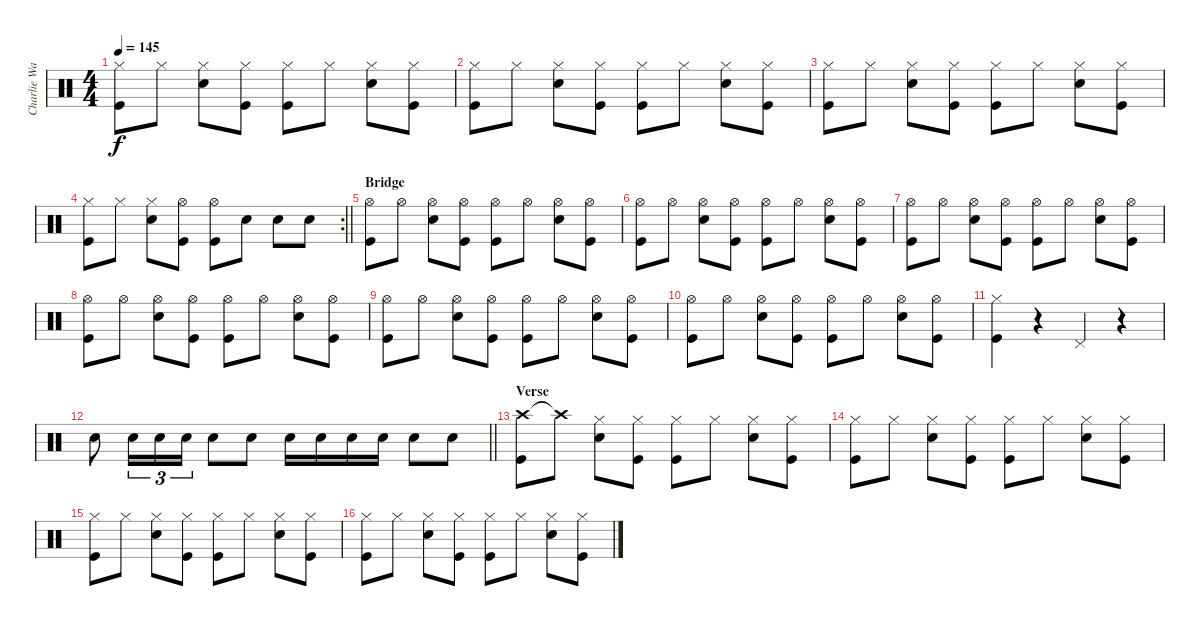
\track ("Charlie Watts" "Charlie Wa") {instrument percussion}
\staff {score}
\articulation defaults
\ts (4 4)
\tempo 145
\clef neutral
\ks c
("Hi-Hat (closed)" "Kick (hit)").8{dy f} "Hi-Hat (closed)".8 ("Hi-Hat (closed)" "Snare (hit) 2").8 ("Hi-Hat (closed)" "Kick (hit)").8 ("Hi-Hat (closed)" "Kick (hit)").8 "Hi-Hat (closed)".8 ("Hi-Hat (closed)" "Snare (hit) 2").8 ("Hi-Hat (closed)" "Kick (hit)").8 |
("Hi-Hat (closed)" "Kick (hit)").8 "Hi-Hat (closed)".8 ("Hi-Hat (closed)" "Snare (hit) 2").8 ("Hi-Hat (closed)" "Kick (hit)").8 ("Hi-Hat (closed)" "Kick (hit)").8 "Hi-Hat (closed)".8 ("Hi-Hat (closed)" "Snare (hit) 2").8 ("Hi-Hat (closed)" "Kick (hit)").8 |
("Hi-Hat (closed)" "Kick (hit)").8 "Hi-Hat (closed)".8 ("Hi-Hat (closed)" "Snare (hit) 2").8 ("Hi-Hat (closed)" "Kick (hit)").8 ("Hi-Hat (closed)" "Kick (hit)").8 "Hi-Hat (closed)".8 ("Hi-Hat (closed)" "Snare (hit) 2").8 ("Hi-Hat (closed)" "Kick (hit)").8 |
\rc 2
\barLineRight lightlight
("Hi-Hat (closed)" "Kick (hit)").8 "Hi-Hat (closed)".8 ("Hi-Hat (closed)" "Snare (hit) 2").8 ("Hi-Hat (open)" "Kick (hit)").8 ("Hi-Hat (open)" "Kick (hit)").8 "Snare (hit) 2".8 "Snare (hit) 2".8 "Snare (hit) 2".8 |
\section ("" "Bridge")
("Hi-Hat (open)" "Kick (hit)").8 "Hi-Hat (open)".8 ("Hi-Hat (open)" "Snare (hit) 2").8 ("Hi-Hat (open)" "Kick (hit)").8 ("Hi-Hat (open)" "Kick (hit)").8 "Hi-Hat (open)".8 ("Hi-Hat (open)" "Snare (hit) 2").8 ("Hi-Hat (open)" "Kick (hit)").8 |
("Hi-Hat (open)" "Kick (hit)").8 "Hi-Hat (open)".8 ("Hi-Hat (open)" "Snare (hit) 2").8 ("Hi-Hat (open)" "Kick (hit)").8 ("Hi-Hat (open)" "Kick (hit)").8 "Hi-Hat (open)".8 ("Hi-Hat (open)" "Snare (hit) 2").8 ("Hi-Hat (open)" "Kick (hit)").8 |
("Hi-Hat (open)" "Kick (hit)").8 "Hi-Hat (open)".8 ("Hi-Hat (open)" "Snare (hit) 2").8 ("Hi-Hat (open)" "Kick (hit)").8 ("Hi-Hat (open)" "Kick (hit)").8 "Hi-Hat (open)".8 ("Hi-Hat (open)" "Snare (hit) 2").8 ("Hi-Hat (open)" "Kick (hit)").8 |
("Hi-Hat (open)" "Kick (hit)").8 "Hi-Hat (open)".8 ("Hi-Hat (open)" "Snare (hit) 2").8 ("Hi-Hat (open)" "Kick (hit)").8 ("Hi-Hat (open)" "Kick (hit)").8 "Hi-Hat (open)".8 ("Hi-Hat (open)" "Snare (hit) 2").8 ("Hi-Hat (open)" "Kick (hit)").8 |
("Hi-Hat (open)" "Kick (hit)").8 "Hi-Hat (open)".8 ("Hi-Hat (open)" "Snare (hit) 2").8 ("Hi-Hat (open)" "Kick (hit)").8 ("Hi-Hat (open)" "Kick (hit)").8 "Hi-Hat (open)".8 ("Hi-Hat (open)" "Snare (hit) 2").8 ("Hi-Hat (open)" "Kick (hit)").8 |
("Hi-Hat (open)" "Kick (hit)").8 "Hi-Hat (open)".8 ("Hi-Hat (open)" "Snare (hit) 2").8 ("Hi-Hat (open)" "Kick (hit)").8 ("Hi-Hat (open)" "Kick (hit)").8 "Hi-Hat (open)".8 ("Hi-Hat (open)" "Snare (hit) 2").8 ("Hi-Hat (open)" "Kick (hit)").8 |
("Hi-Hat (closed)" "Kick (hit)").4 r.4 "Pedal Hi-Hat (hit)".4 r.4 |
\barLineRight lightlight "Snare (hit) 2".8 "Snare (hit) 2".16{tu (3 2)} "Snare (hit) 2".16{tu (3 2)} "Snare (hit) 2".16{tu (3 2)} "Snare (hit) 2".8 "Snare (hit) 2".8 "Snare (hit) 2".16 "Snare (hit) 2".16 "Snare (hit) 2".16 "Snare (hit) 2".16 "Snare (hit) 2".8 "Snare (hit) 2".8
|
\section ("" "Verse")
("Crash high (hit)" "Kick (hit)").8 "Crash high (hit)"{t}.8 ("Hi-Hat (closed)" "Snare (hit) 2").8 ("Hi-Hat (closed)" "Kick (hit)").8 ("Hi-Hat (closed)" "Kick (hit)").8 "Hi-Hat (closed)".8 ("Hi-Hat (closed)" "Snare (hit) 2").8 ("Hi-Hat (closed)" "Kick (hit)").8 |
("Hi-Hat (closed)" "Kick (hit)").8 "Hi-Hat (closed)".8 ("Hi-Hat (closed)" "Snare (hit) 2").8 ("Hi-Hat (closed)" "Kick (hit)").8 ("Hi-Hat (closed)" "Kick (hit)").8 "Hi-Hat (closed)".8 ("Hi-Hat (closed)" "Snare (hit) 2").8 ("Hi-Hat (closed)" "Kick (hit)").8 |
("Hi-Hat (closed)" "Kick (hit)").8 "Hi-Hat (closed)".8 ("Hi-Hat (closed)" "Snare (hit) 2").8 ("Hi-Hat (closed)" "Kick (hit)").8 ("Hi-Hat (closed)" "Kick (hit)").8 "Hi-Hat (closed)".8 ("Hi-Hat (closed)" "Snare (hit) 2").8 ("Hi-Hat (closed)" "Kick (hit)").8 |
("Hi-Hat (closed)" "Kick (hit)").8 "Hi-Hat (closed)".8 ("Hi-Hat (closed)" "Snare (hit) 2").8 ("Hi-Hat (closed)" "Kick (hit)").8 ("Hi-Hat (closed)" "Kick (hit)").8 "Hi-Hat (closed)".8 ("Hi-Hat (closed)" "Snare (hit) 2").8 ("Hi-Hat (closed)" "Kick (hit)").8
